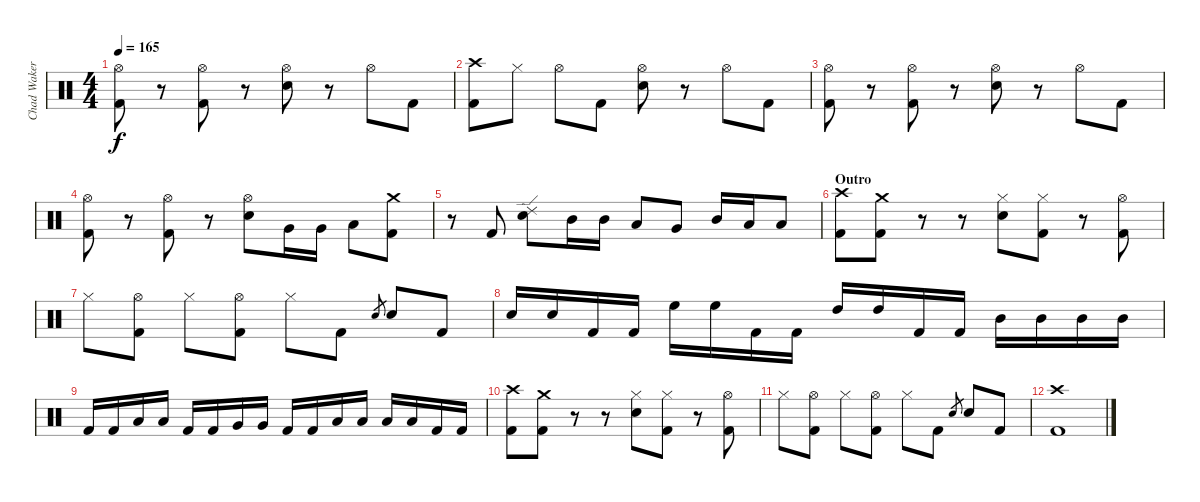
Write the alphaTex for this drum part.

\track ("Chad Wakerman - Percussion" "Chad Waker") {instrument percussion}
\staff {score}
\articulation defaults
\ts (4 4)
\tempo 165
\clef neutral
\ks c
("Hi-Hat (open)" "Kick (hit) 2").8{dy f} r.8 ("Hi-Hat (open)" "Kick (hit) 2").8 r.8 ("Hi-Hat (open)" "Electric Snare (hit)").8 r.8 "Hi-Hat (open)".8 "Kick (hit) 2".8 |
("Crash high (hit)" "Kick (hit) 2").8 "Hi-Hat (closed)".8 "Hi-Hat (open)".8 "Kick (hit) 2".8 ("Hi-Hat (open)" "Electric Snare (hit)").8 r.8 "Hi-Hat (open)".8 "Kick (hit) 2".8 |
("Hi-Hat (open)" "Kick (hit) 2").8 r.8 ("Hi-Hat (open)" "Kick (hit) 2").8 r.8 ("Hi-Hat (open)" "Electric Snare (hit)").8 r.8 "Hi-Hat (open)".8 "Kick (hit) 2".8 |
("Hi-Hat (open)" "Kick (hit) 2").8 r.8 ("Hi-Hat (open)" "Kick (hit) 2").8 r.8 ("Hi-Hat (open)" "Electric Snare (hit)").8 "Very Low Tom (hit)".16 "Very Low Tom (hit)".16 "Low Floor Tom (hit)".8 ("Crash medium (hit)" "Kick (hit) 2").8 |
r.8 "Kick (hit) 2".8 ("Ride (edge) 2" "Electric Snare (hit)").8 "Mid Tom (hit)".16 "Mid Tom (hit)".16 "Low Tom (hit)".8 "Very Low Tom (hit)".8 "Mid Tom (hit)".16 "Low Tom (hit)".16 "Low Floor Tom (hit)".8 |
\section ("" "Outro")
("Crash high (hit)" "Kick (hit) 2").8 ("Crash medium (hit)" "Kick (hit) 2").8 r.8 r.8 ("Hi-Hat (closed)" "Electric Snare (hit)").8 ("Hi-Hat (closed)" "Kick (hit) 2").8 r.8 ("Hi-Hat (open)" "Kick (hit) 2").8 |
"Hi-Hat (closed)".8 ("Hi-Hat (open)" "Kick (hit) 2").8 "Hi-Hat (closed)".8 ("Hi-Hat (open)" "Kick (hit) 2").8 "Hi-Hat (closed)".8 "Kick (hit) 2".8 "Electric Snare (hit)".8{gr} "Electric Snare (hit)".8 "Kick (hit) 2".8 |
"Electric Snare (hit)".16 "Electric Snare (hit)".16 "Kick (hit) 2".16 "Kick (hit) 2".16 "High Floor Tom (hit)".16 "High Floor Tom (hit)".16 "Kick (hit) 2".16 "Kick (hit) 2".16 "High Tom (hit)".16 "High Tom (hit)".16 "Kick (hit) 2".16 "Kick (hit) 2".16 "Mid Tom (hit)".16 "Mid Tom (hit)".16 "Mid Tom (hit)".16 "Mid Tom (hit)".16 |
"Kick (hit) 2".16 "Kick (hit) 2".16 "Low Tom (hit)".16 "Low Tom (hit)".16 "Kick (hit) 2".16 "Kick (hit) 2".16 "Very Low Tom (hit)".16 "Very Low Tom (hit)".16 "Kick (hit) 2".16 "Kick (hit) 2".16 "Low Floor Tom (hit)".16 "Low Floor Tom (hit)".16 "Low Floor Tom (hit)".16 "Low Floor Tom (hit)".16 "Kick (hit) 2".16 "Kick (hit) 2".16 |
("Crash high (hit)" "Kick (hit) 2").8 ("Crash medium (hit)" "Kick (hit) 2").8 r.8 r.8 ("Hi-Hat (closed)" "Electric Snare (hit)").8 ("Hi-Hat (closed)" "Kick (hit) 2").8 r.8 ("Hi-Hat (open)" "Kick (hit) 2").8 |
"Hi-Hat (closed)".8 ("Hi-Hat (open)" "Kick (hit) 2").8 "Hi-Hat (closed)".8 ("Hi-Hat (open)" "Kick (hit) 2").8 "Hi-Hat (closed)".8 "Kick (hit) 2".8 "Electric Snare (hit)".8{gr} "Electric Snare (hit)".8 "Kick (hit) 2".8 |
("Crash high (hit)" "Kick (hit) 2").1
